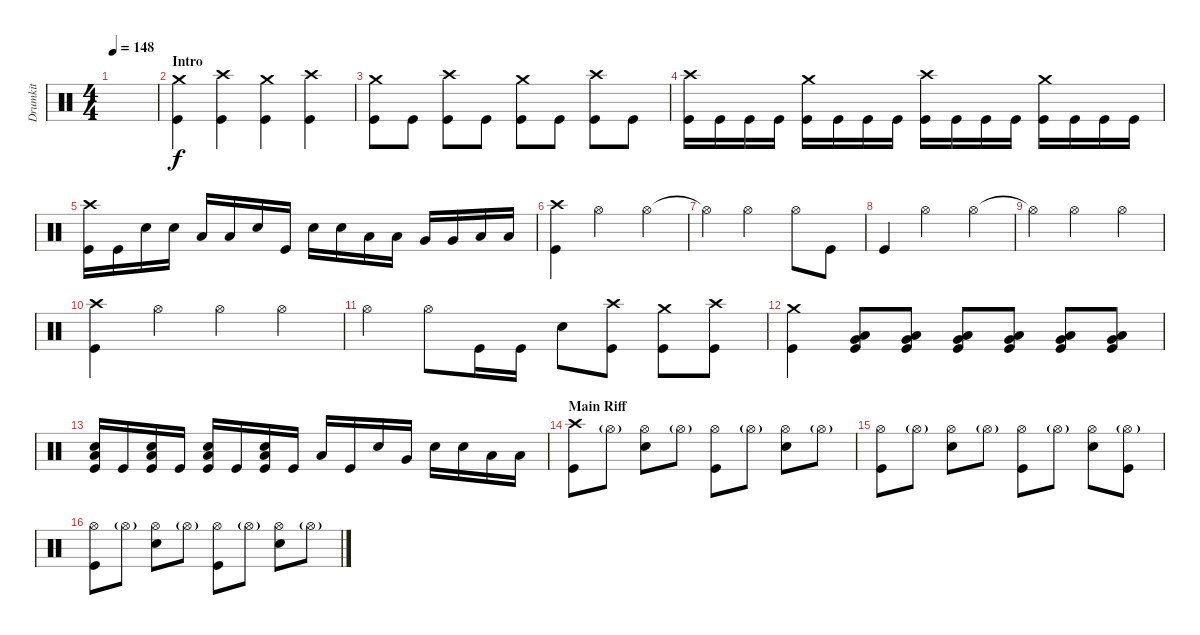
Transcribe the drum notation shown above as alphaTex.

\track ("Drumkit" "Drumkit") {instrument percussion}
\staff {score}
\articulation defaults
\ts (4 4)
\tempo 148
\clef neutral
\ks c
|
\section ("" "Intro")
("Kick (hit)" "Crash medium (hit)").4 ("Kick (hit)" "Crash high (hit)").4 ("Kick (hit)" "Crash medium (hit)").4 ("Kick (hit)" "Crash high (hit)").4 |
("Kick (hit)" "Crash medium (hit)").8 "Kick (hit)".8 ("Kick (hit)" "Crash high (hit)").8 "Kick (hit)".8 ("Kick (hit)" "Crash medium (hit)").8 "Kick (hit)".8 ("Kick (hit)" "Crash high (hit)").8 "Kick (hit)".8 |
("Kick (hit)" "Crash high (hit)").16 "Kick (hit)".16 "Kick (hit)".16 "Kick (hit)".16 ("Kick (hit)" "Crash medium (hit)").16 "Kick (hit)".16 "Kick (hit)".16 "Kick (hit)".16 ("Kick (hit)" "Crash high (hit)").16 "Kick (hit)".16 "Kick (hit)".16 "Kick (hit)".16 ("Kick (hit)" "Crash medium (hit)").16 "Kick (hit)".16 "Kick (hit)".16 "Kick (hit)".16 |
("Kick (hit)" "Crash high (hit)").16 "Kick (hit)".16 "Snare (hit) 2".16 "Snare (hit) 2".16 "Low Tom (hit)".16 "Low Tom (hit)".16 "Snare (hit) 2".16 "Kick (hit)".16 "Snare (hit) 2".16 "Snare (hit) 2".16 "Low Tom (hit)".16 "Low Tom (hit)".16 "Very Low Tom (hit)".16 "Very Low Tom (hit)".16 "Low Floor Tom (hit)".16 "Low Floor Tom (hit)".16 |
("Kick (hit)" "Crash high (hit)").4 "Hi-Hat (open)".2 "Hi-Hat (open)".4 |
"Hi-Hat (open)"{t}.4 "Hi-Hat (open)".2 "Hi-Hat (open)".8 "Kick (hit)".8 |
"Kick (hit)".4 "Hi-Hat (open)".2 "Hi-Hat (open)".4 |
"Hi-Hat (open)"{t}.4 "Hi-Hat (open)".2 "Hi-Hat (open)".4 |
("Kick (hit)" "Crash high (hit)").4 "Hi-Hat (open)".4 "Hi-Hat (open)".4 "Hi-Hat (open)".4 |
"Hi-Hat (open)".4 "Hi-Hat (open)".8 "Kick (hit)".16 "Kick (hit)".16 "Snare (hit) 2".8 ("Kick (hit)" "Crash high (hit)").8 ("Kick (hit)" "Crash medium (hit)").8 ("Kick (hit)" "Crash high (hit)").8 |
("Kick (hit)" "Crash medium (hit)").4 ("Low Floor Tom (hit)" "Kick (hit)" "Very Low Tom (hit)").8 ("Low Floor Tom (hit)" "Kick (hit)" "Very Low Tom (hit)").8 ("Low Floor Tom (hit)" "Kick (hit)" "Very Low Tom (hit)").8 ("Low Floor Tom (hit)" "Kick (hit)" "Very Low Tom (hit)").8 ("Low Floor Tom (hit)" "Kick (hit)" "Very Low Tom (hit)").8 ("Low Floor Tom (hit)" "Kick (hit)" "Very Low Tom (hit)").8 |
("Snare (hit) 2" "Kick (hit)" "Low Floor Tom (hit)").16 "Kick (hit)".16 ("Snare (hit) 2" "Kick (hit)" "Low Floor Tom (hit)").16 "Kick (hit)".16 ("Snare (hit) 2" "Kick (hit)" "Low Floor Tom (hit)").16 "Kick (hit)".16 ("Snare (hit) 2" "Kick (hit)" "Low Floor Tom (hit)").16 "Kick (hit)".16 "Low Tom (hit)".16 "Kick (hit)".16 "Snare (hit) 2".16 "Very Low Tom (hit)".16 "Snare (hit) 2".16 "Snare (hit) 2".16 "Low Floor Tom (hit)".16 "Low Floor Tom (hit)".16 |
\section ("" "Main Riff")
("Crash high (hit)" "Kick (hit)").8 "Hi-Hat (open)"{g}.8 ("Hi-Hat (open)" "Snare (hit) 2").8 "Hi-Hat (open)"{g}.8 ("Hi-Hat (open)" "Kick (hit)").8 "Hi-Hat (open)"{g}.8 ("Hi-Hat (open)" "Snare (hit) 2").8 "Hi-Hat (open)"{g}.8 |
("Kick (hit)" "Hi-Hat (open)").8 "Hi-Hat (open)"{g}.8 ("Hi-Hat (open)" "Snare (hit) 2").8 "Hi-Hat (open)"{g}.8 ("Hi-Hat (open)" "Kick (hit)").8 "Hi-Hat (open)"{g}.8 ("Hi-Hat (open)" "Snare (hit) 2").8 ("Hi-Hat (open)"{g} "Kick (hit)").8 |
("Kick (hit)" "Hi-Hat (open)").8 "Hi-Hat (open)"{g}.8 ("Hi-Hat (open)" "Snare (hit) 2").8 "Hi-Hat (open)"{g}.8 ("Hi-Hat (open)" "Kick (hit)").8 "Hi-Hat (open)"{g}.8 ("Hi-Hat (open)" "Snare (hit) 2").8 "Hi-Hat (open)"{g}.8
